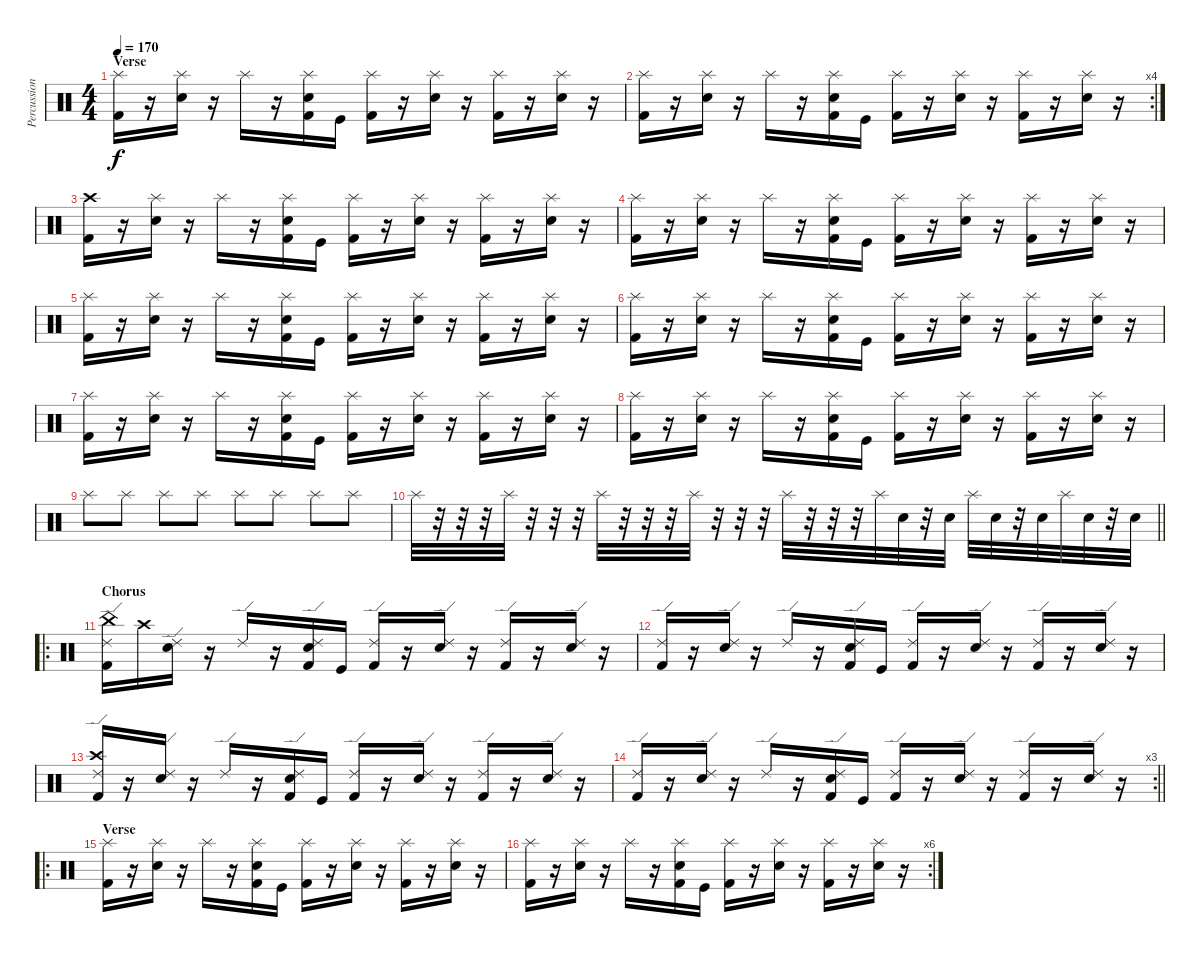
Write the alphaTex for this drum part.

\track ("Percussion" "Percussion") {instrument percussion}
\staff {score}
\articulation defaults
\ts (4 4)
\section ("" "Verse")
\tempo 170
\clef neutral
\ks c
("Splash (hit)" "Kick (hit) 2").16{dy f} r.16 ("Splash (hit)" "Electric Snare (hit)").16 r.16 "Splash (hit)".16 r.16 ("Splash (hit)" "Electric Snare (hit)" "Kick (hit) 2").16 "Kick (hit)".16 ("Splash (hit)" "Kick (hit) 2").16 r.16 ("Splash (hit)" "Electric Snare (hit)").16 r.16 ("Splash (hit)" "Kick (hit) 2").16 r.16 ("Splash (hit)" "Electric Snare (hit)").16 r.16 |
\rc 4
("Splash (hit)" "Kick (hit) 2").16 r.16 ("Splash (hit)" "Electric Snare (hit)").16 r.16 "Splash (hit)".16 r.16 ("Splash (hit)" "Electric Snare (hit)" "Kick (hit) 2").16 "Kick (hit)".16 ("Splash (hit)" "Kick (hit) 2").16 r.16 ("Splash (hit)" "Electric Snare (hit)").16 r.16 ("Splash (hit)" "Kick (hit) 2").16 r.16 ("Splash (hit)" "Electric Snare (hit)").16 r.16 |
("Crash high (hit)" "Kick (hit) 2").16 r.16 ("Splash (hit)" "Electric Snare (hit)").16 r.16 "Splash (hit)".16 r.16 ("Splash (hit)" "Electric Snare (hit)" "Kick (hit) 2").16 "Kick (hit)".16 ("Splash (hit)" "Kick (hit) 2").16 r.16 ("Splash (hit)" "Electric Snare (hit)").16 r.16 ("Splash (hit)" "Kick (hit) 2").16 r.16 ("Splash (hit)" "Electric Snare (hit)").16 r.16 |
("Splash (hit)" "Kick (hit) 2").16 r.16 ("Splash (hit)" "Electric Snare (hit)").16 r.16 "Splash (hit)".16 r.16 ("Splash (hit)" "Electric Snare (hit)" "Kick (hit) 2").16 "Kick (hit)".16 ("Splash (hit)" "Kick (hit) 2").16 r.16 ("Splash (hit)" "Electric Snare (hit)").16 r.16 ("Splash (hit)" "Kick (hit) 2").16 r.16 ("Splash (hit)" "Electric Snare (hit)").16 r.16 |
("Splash (hit)" "Kick (hit) 2").16 r.16 ("Splash (hit)" "Electric Snare (hit)").16 r.16 "Splash (hit)".16 r.16 ("Splash (hit)" "Electric Snare (hit)" "Kick (hit) 2").16 "Kick (hit)".16 ("Splash (hit)" "Kick (hit) 2").16 r.16 ("Splash (hit)" "Electric Snare (hit)").16 r.16 ("Splash (hit)" "Kick (hit) 2").16 r.16 ("Splash (hit)" "Electric Snare (hit)").16 r.16 |
("Splash (hit)" "Kick (hit) 2").16 r.16 ("Splash (hit)" "Electric Snare (hit)").16 r.16 "Splash (hit)".16 r.16 ("Splash (hit)" "Electric Snare (hit)" "Kick (hit) 2").16 "Kick (hit)".16 ("Splash (hit)" "Kick (hit) 2").16 r.16 ("Splash (hit)" "Electric Snare (hit)").16 r.16 ("Splash (hit)" "Kick (hit) 2").16 r.16 ("Splash (hit)" "Electric Snare (hit)").16 r.16 |
("Splash (hit)" "Kick (hit) 2").16 r.16 ("Splash (hit)" "Electric Snare (hit)").16 r.16 "Splash (hit)".16 r.16 ("Splash (hit)" "Electric Snare (hit)" "Kick (hit) 2").16 "Kick (hit)".16 ("Splash (hit)" "Kick (hit) 2").16 r.16 ("Splash (hit)" "Electric Snare (hit)").16 r.16 ("Splash (hit)" "Kick (hit) 2").16 r.16 ("Splash (hit)" "Electric Snare (hit)").16 r.16 |
("Splash (hit)" "Kick (hit) 2").16 r.16 ("Splash (hit)" "Electric Snare (hit)").16 r.16 "Splash (hit)".16 r.16 ("Splash (hit)" "Electric Snare (hit)" "Kick (hit) 2").16 "Kick (hit)".16 ("Splash (hit)" "Kick (hit) 2").16 r.16 ("Splash (hit)" "Electric Snare (hit)").16 r.16 ("Splash (hit)" "Kick (hit) 2").16 r.16 ("Splash (hit)" "Electric Snare (hit)").16 r.16 |
"Splash (hit)".8 "Splash (hit)".8 "Splash (hit)".8 "Splash (hit)".8 "Splash (hit)".8 "Splash (hit)".8 "Splash (hit)".8 "Splash (hit)".8 |
\barLineRight lightlight "Splash (hit)".32
r.32 r.32 r.32 "Splash (hit)".32 r.32 r.32 r.32 "Splash (hit)".32 r.32 r.32 r.32 "Splash (hit)".32 r.32 r.32 r.32 "Splash (hit)".32 r.32 r.32 r.32 "Splash (hit)".32 "Electric Snare (hit)".32 r.32 "Electric Snare (hit)".32 "Splash (hit)".32 "Electric Snare (hit)".32 r.32 "Electric Snare (hit)".32 "Splash (hit)".32 "Electric Snare (hit)".32 r.32 "Electric Snare (hit)".32 |
\ro
\section ("" "Chorus")
("China (hit)" "Ride (edge) 2" "Kick (hit) 2").16 "Crash high (hit)".16 ("Ride (edge) 2" "Electric Snare (hit)").16 r.16 "Ride (edge) 2".16 r.16 ("Ride (edge) 2" "Electric Snare (hit)" "Kick (hit) 2").16 "Kick (hit)".16 ("Ride (edge) 2" "Kick (hit) 2").16 r.16 ("Ride (edge) 2" "Electric Snare (hit)").16 r.16 ("Ride (edge) 2" "Kick (hit) 2").16 r.16 ("Ride (edge) 2" "Electric Snare (hit)").16 r.16 |
("Ride (edge) 2" "Kick (hit) 2").16 r.16 ("Ride (edge) 2" "Electric Snare (hit)").16 r.16 "Ride (edge) 2".16 r.16 ("Ride (edge) 2" "Electric Snare (hit)" "Kick (hit) 2").16 "Kick (hit)".16 ("Ride (edge) 2" "Kick (hit) 2").16 r.16 ("Ride (edge) 2" "Electric Snare (hit)").16 r.16 ("Ride (edge) 2" "Kick (hit) 2").16 r.16 ("Ride (edge) 2" "Electric Snare (hit)").16 r.16 |
("Crash high (hit)" "Ride (edge) 2" "Kick (hit) 2").16 r.16 ("Ride (edge) 2" "Electric Snare (hit)").16 r.16 "Ride (edge) 2".16 r.16 ("Ride (edge) 2" "Electric Snare (hit)" "Kick (hit) 2").16 "Kick (hit)".16 ("Ride (edge) 2" "Kick (hit) 2").16 r.16 ("Ride (edge) 2" "Electric Snare (hit)").16 r.16 ("Ride (edge) 2" "Kick (hit) 2").16 r.16 ("Ride (edge) 2" "Electric Snare (hit)").16 r.16 |
\rc 3
\barLineRight lightlight
("Ride (edge) 2" "Kick (hit) 2").16 r.16 ("Ride (edge) 2" "Electric Snare (hit)").16 r.16 "Ride (edge) 2".16 r.16 ("Ride (edge) 2" "Electric Snare (hit)" "Kick (hit) 2").16 "Kick (hit)".16 ("Ride (edge) 2" "Kick (hit) 2").16 r.16 ("Ride (edge) 2" "Electric Snare (hit)").16 r.16 ("Ride (edge) 2" "Kick (hit) 2").16 r.16 ("Ride (edge) 2" "Electric Snare (hit)").16 r.16 |
\ro
\section ("" "Verse")
("Splash (hit)" "Kick (hit) 2").16 r.16 ("Splash (hit)" "Electric Snare (hit)").16 r.16 "Splash (hit)".16 r.16 ("Splash (hit)" "Electric Snare (hit)" "Kick (hit) 2").16 "Kick (hit)".16 ("Splash (hit)" "Kick (hit) 2").16 r.16 ("Splash (hit)" "Electric Snare (hit)").16 r.16 ("Splash (hit)" "Kick (hit) 2").16 r.16 ("Splash (hit)" "Electric Snare (hit)").16 r.16 |
\rc 6
("Splash (hit)" "Kick (hit) 2").16 r.16 ("Splash (hit)" "Electric Snare (hit)").16 r.16 "Splash (hit)".16 r.16 ("Splash (hit)" "Electric Snare (hit)" "Kick (hit) 2").16 "Kick (hit)".16 ("Splash (hit)" "Kick (hit) 2").16 r.16 ("Splash (hit)" "Electric Snare (hit)").16 r.16 ("Splash (hit)" "Kick (hit) 2").16 r.16 ("Splash (hit)" "Electric Snare (hit)").16 r.16
